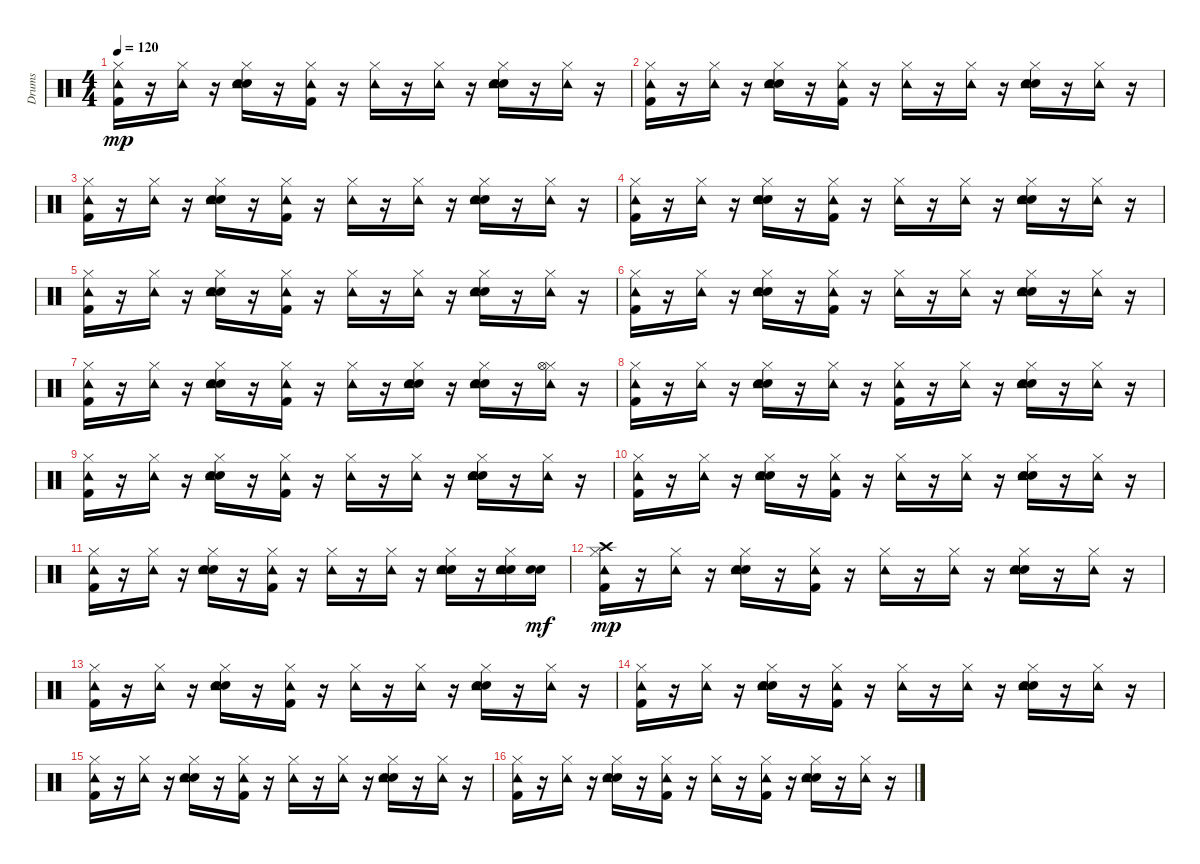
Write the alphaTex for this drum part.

\track ("Drums" "Drums") {instrument percussion}
\staff {score}
\articulation defaults
\ts (4 4)
\tempo 120
\clef neutral
\ks c
("Hi-Hat (closed)" "Tambourine (hit)" "Kick (hit) 2").16{dy mp} r.16 ("Hi-Hat (closed)" "Tambourine (hit)").16 r.16 ("Hi-Hat (closed)" "Snare (hit) 2" "Electric Snare (hit)" "Tambourine (hit)").16 r.16 ("Hi-Hat (closed)" "Tambourine (hit)" "Kick (hit) 2").16 r.16 ("Hi-Hat (closed)" "Tambourine (hit)").16 r.16 ("Hi-Hat (closed)" "Tambourine (hit)").16 r.16 ("Hi-Hat (closed)" "Snare (hit) 2" "Electric Snare (hit)" "Tambourine (hit)").16 r.16 ("Hi-Hat (closed)" "Tambourine (hit)").16 r.16 |
("Hi-Hat (closed)" "Tambourine (hit)" "Kick (hit) 2").16 r.16 ("Hi-Hat (closed)" "Tambourine (hit)").16 r.16 ("Hi-Hat (closed)" "Snare (hit) 2" "Electric Snare (hit)" "Tambourine (hit)").16 r.16 ("Hi-Hat (closed)" "Tambourine (hit)" "Kick (hit) 2").16 r.16 ("Hi-Hat (closed)" "Tambourine (hit)").16 r.16 ("Hi-Hat (closed)" "Tambourine (hit)").16 r.16 ("Hi-Hat (closed)" "Snare (hit) 2" "Electric Snare (hit)" "Tambourine (hit)").16 r.16 ("Hi-Hat (closed)" "Tambourine (hit)").16 r.16 |
("Hi-Hat (closed)" "Tambourine (hit)" "Kick (hit) 2").16 r.16 ("Hi-Hat (closed)" "Tambourine (hit)").16 r.16 ("Hi-Hat (closed)" "Snare (hit) 2" "Electric Snare (hit)" "Tambourine (hit)").16 r.16 ("Hi-Hat (closed)" "Tambourine (hit)" "Kick (hit) 2").16 r.16 ("Hi-Hat (closed)" "Tambourine (hit)").16 r.16 ("Hi-Hat (closed)" "Tambourine (hit)").16 r.16 ("Hi-Hat (closed)" "Snare (hit) 2" "Electric Snare (hit)" "Tambourine (hit)").16 r.16 ("Hi-Hat (closed)" "Tambourine (hit)").16 r.16 |
("Hi-Hat (closed)" "Tambourine (hit)" "Kick (hit) 2").16 r.16 ("Hi-Hat (closed)" "Tambourine (hit)").16 r.16 ("Hi-Hat (closed)" "Snare (hit) 2" "Electric Snare (hit)" "Tambourine (hit)").16 r.16 ("Hi-Hat (closed)" "Tambourine (hit)" "Kick (hit) 2").16 r.16 ("Hi-Hat (closed)" "Tambourine (hit)").16 r.16 ("Hi-Hat (closed)" "Tambourine (hit)").16 r.16 ("Hi-Hat (closed)" "Snare (hit) 2" "Electric Snare (hit)" "Tambourine (hit)").16 r.16 ("Hi-Hat (closed)" "Tambourine (hit)").16 r.16 |
("Hi-Hat (closed)" "Tambourine (hit)" "Kick (hit) 2").16 r.16 ("Hi-Hat (closed)" "Tambourine (hit)").16 r.16 ("Hi-Hat (closed)" "Snare (hit) 2" "Electric Snare (hit)" "Tambourine (hit)").16 r.16 ("Hi-Hat (closed)" "Tambourine (hit)" "Kick (hit) 2").16 r.16 ("Hi-Hat (closed)" "Tambourine (hit)").16 r.16 ("Hi-Hat (closed)" "Tambourine (hit)").16 r.16 ("Hi-Hat (closed)" "Snare (hit) 2" "Electric Snare (hit)" "Tambourine (hit)").16 r.16 ("Hi-Hat (closed)" "Tambourine (hit)").16 r.16 |
("Hi-Hat (closed)" "Tambourine (hit)" "Kick (hit) 2").16 r.16 ("Hi-Hat (closed)" "Tambourine (hit)").16 r.16 ("Hi-Hat (closed)" "Snare (hit) 2" "Electric Snare (hit)" "Tambourine (hit)").16 r.16 ("Hi-Hat (closed)" "Tambourine (hit)" "Kick (hit) 2").16 r.16 ("Hi-Hat (closed)" "Tambourine (hit)").16 r.16 ("Hi-Hat (closed)" "Tambourine (hit)").16 r.16 ("Hi-Hat (closed)" "Snare (hit) 2" "Electric Snare (hit)" "Tambourine (hit)").16 r.16 ("Hi-Hat (closed)" "Tambourine (hit)").16 r.16 |
("Hi-Hat (closed)" "Tambourine (hit)" "Kick (hit) 2").16 r.16 ("Hi-Hat (closed)" "Tambourine (hit)").16 r.16 ("Hi-Hat (closed)" "Snare (hit) 2" "Electric Snare (hit)" "Tambourine (hit)").16 r.16 ("Hi-Hat (closed)" "Tambourine (hit)" "Kick (hit) 2").16 r.16 ("Hi-Hat (closed)" "Tambourine (hit)").16 r.16 ("Hi-Hat (closed)" "Snare (hit) 2" "Electric Snare (hit)" "Tambourine (hit)").16 r.16 ("Hi-Hat (closed)" "Snare (hit) 2" "Electric Snare (hit)" "Tambourine (hit)").16 r.16 ("Hi-Hat (closed)" "Hi-Hat (open)" "Tambourine (hit)").16 r.16 |
("Hi-Hat (closed)" "Tambourine (hit)" "Kick (hit) 2").16 r.16 ("Hi-Hat (closed)" "Tambourine (hit)").16 r.16 ("Hi-Hat (closed)" "Snare (hit) 2" "Electric Snare (hit)" "Tambourine (hit)").16 r.16 ("Hi-Hat (closed)" "Tambourine (hit)").16 r.16 ("Hi-Hat (closed)" "Tambourine (hit)" "Kick (hit) 2").16 r.16 ("Hi-Hat (closed)" "Tambourine (hit)").16 r.16 ("Hi-Hat (closed)" "Snare (hit) 2" "Electric Snare (hit)" "Tambourine (hit)").16 r.16 ("Hi-Hat (closed)" "Tambourine (hit)").16 r.16 |
("Hi-Hat (closed)" "Tambourine (hit)" "Kick (hit) 2").16 r.16 ("Hi-Hat (closed)" "Tambourine (hit)").16 r.16 ("Hi-Hat (closed)" "Snare (hit) 2" "Electric Snare (hit)" "Tambourine (hit)").16 r.16 ("Hi-Hat (closed)" "Tambourine (hit)" "Kick (hit) 2").16 r.16 ("Hi-Hat (closed)" "Tambourine (hit)").16 r.16 ("Hi-Hat (closed)" "Tambourine (hit)").16 r.16 ("Hi-Hat (closed)" "Snare (hit) 2" "Electric Snare (hit)" "Tambourine (hit)").16 r.16 ("Hi-Hat (closed)" "Tambourine (hit)").16 r.16 |
("Hi-Hat (closed)" "Tambourine (hit)" "Kick (hit) 2").16 r.16 ("Hi-Hat (closed)" "Tambourine (hit)").16 r.16 ("Hi-Hat (closed)" "Snare (hit) 2" "Electric Snare (hit)" "Tambourine (hit)").16 r.16 ("Hi-Hat (closed)" "Tambourine (hit)" "Kick (hit) 2").16 r.16 ("Hi-Hat (closed)" "Tambourine (hit)").16 r.16 ("Hi-Hat (closed)" "Tambourine (hit)").16 r.16 ("Hi-Hat (closed)" "Snare (hit) 2" "Electric Snare (hit)" "Tambourine (hit)").16 r.16 ("Hi-Hat (closed)" "Tambourine (hit)").16 r.16 |
("Hi-Hat (closed)" "Tambourine (hit)" "Kick (hit) 2").16 r.16 ("Hi-Hat (closed)" "Tambourine (hit)").16 r.16 ("Hi-Hat (closed)" "Snare (hit) 2" "Electric Snare (hit)" "Tambourine (hit)").16 r.16 ("Hi-Hat (closed)" "Tambourine (hit)" "Kick (hit) 2").16 r.16 ("Hi-Hat (closed)" "Tambourine (hit)").16 r.16 ("Hi-Hat (closed)" "Tambourine (hit)").16 r.16 ("Hi-Hat (closed)" "Snare (hit) 2" "Electric Snare (hit)" "Tambourine (hit)").16 r.16 ("Hi-Hat (closed)" "Snare (hit) 2" "Electric Snare (hit)" "Tambourine (hit)").16 ("Snare (hit) 2" "Electric Snare (hit)").16{dy mf} |
("Hi-Hat (closed)" "Crash high (hit)" "Tambourine (hit)" "Kick (hit) 2").16{dy mp} r.16 ("Hi-Hat (closed)" "Tambourine (hit)").16 r.16 ("Hi-Hat (closed)" "Snare (hit) 2" "Electric Snare (hit)" "Tambourine (hit)").16 r.16 ("Hi-Hat (closed)" "Tambourine (hit)" "Kick (hit) 2").16 r.16 ("Hi-Hat (closed)" "Tambourine (hit)").16 r.16 ("Hi-Hat (closed)" "Tambourine (hit)").16 r.16 ("Hi-Hat (closed)" "Snare (hit) 2" "Electric Snare (hit)" "Tambourine (hit)").16 r.16 ("Hi-Hat (closed)" "Tambourine (hit)").16 r.16 |
("Hi-Hat (closed)" "Tambourine (hit)" "Kick (hit) 2").16 r.16 ("Hi-Hat (closed)" "Tambourine (hit)").16 r.16 ("Hi-Hat (closed)" "Snare (hit) 2" "Electric Snare (hit)" "Tambourine (hit)").16 r.16 ("Hi-Hat (closed)" "Tambourine (hit)" "Kick (hit) 2").16 r.16 ("Hi-Hat (closed)" "Tambourine (hit)").16 r.16 ("Hi-Hat (closed)" "Tambourine (hit)").16 r.16 ("Hi-Hat (closed)" "Snare (hit) 2" "Electric Snare (hit)" "Tambourine (hit)").16 r.16 ("Hi-Hat (closed)" "Tambourine (hit)").16 r.16 |
("Hi-Hat (closed)" "Tambourine (hit)" "Kick (hit) 2").16 r.16 ("Hi-Hat (closed)" "Tambourine (hit)").16 r.16 ("Hi-Hat (closed)" "Snare (hit) 2" "Electric Snare (hit)" "Tambourine (hit)").16 r.16 ("Hi-Hat (closed)" "Tambourine (hit)" "Kick (hit) 2").16 r.16 ("Hi-Hat (closed)" "Tambourine (hit)").16 r.16 ("Hi-Hat (closed)" "Tambourine (hit)").16 r.16 ("Hi-Hat (closed)" "Snare (hit) 2" "Electric Snare (hit)" "Tambourine (hit)").16 r.16 ("Hi-Hat (closed)" "Tambourine (hit)").16 r.16 |
("Hi-Hat (closed)" "Tambourine (hit)" "Kick (hit) 2").16 r.16 ("Hi-Hat (closed)" "Tambourine (hit)").16 r.16 ("Hi-Hat (closed)" "Snare (hit) 2" "Electric Snare (hit)" "Tambourine (hit)").16 r.16 ("Hi-Hat (closed)" "Tambourine (hit)" "Kick (hit) 2").16 r.16 ("Hi-Hat (closed)" "Tambourine (hit)").16 r.16 ("Hi-Hat (closed)" "Tambourine (hit)").16 r.16 ("Hi-Hat (closed)" "Snare (hit) 2" "Electric Snare (hit)" "Tambourine (hit)").16 r.16 ("Hi-Hat (closed)" "Tambourine (hit)").16 r.16 |
("Hi-Hat (closed)" "Tambourine (hit)" "Kick (hit) 2").16 r.16 ("Hi-Hat (closed)" "Tambourine (hit)").16 r.16 ("Hi-Hat (closed)" "Snare (hit) 2" "Electric Snare (hit)" "Tambourine (hit)").16 r.16 ("Hi-Hat (closed)" "Tambourine (hit)" "Kick (hit) 2").16 r.16 ("Hi-Hat (closed)" "Tambourine (hit)").16 r.16 ("Hi-Hat (closed)" "Tambourine (hit)" "Kick (hit) 2").16 r.16 ("Hi-Hat (closed)" "Snare (hit) 2" "Electric Snare (hit)" "Tambourine (hit)").16 r.16 ("Hi-Hat (closed)" "Tambourine (hit)").16 r.16
